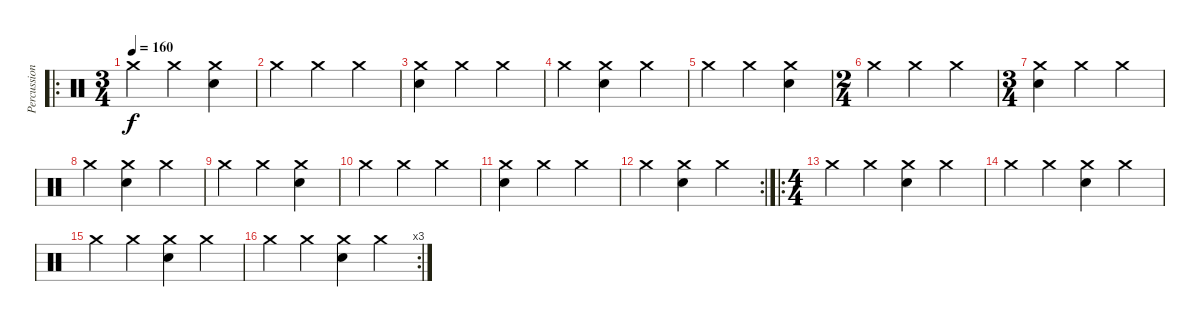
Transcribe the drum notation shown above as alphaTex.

\track ("Percussion" "Percussion") {instrument percussion}
\staff {score}
\articulation defaults
\ro
\ts (3 4)
\tempo 160
\clef neutral
\ks c "Crash medium (hit)".4{dy f} "Crash medium (hit)".4
("Crash medium (hit)" "Snare (hit) 2").4 |
"Crash medium (hit)".4 "Crash medium (hit)".4 "Crash medium (hit)".4 |
("Crash medium (hit)" "Snare (hit) 2").4 "Crash medium (hit)".4 "Crash medium (hit)".4 |
"Crash medium (hit)".4 ("Crash medium (hit)" "Snare (hit) 2").4 "Crash medium (hit)".4 |
"Crash medium (hit)".4 "Crash medium (hit)".4 ("Crash medium (hit)" "Snare (hit) 2").4 |
\ts (2 4)
"Crash medium (hit)".4 "Crash medium (hit)".4 "Crash medium (hit)".4 |
\ts (3 4)
("Crash medium (hit)" "Snare (hit) 2").4 "Crash medium (hit)".4 "Crash medium (hit)".4 |
"Crash medium (hit)".4 ("Crash medium (hit)" "Snare (hit) 2").4 "Crash medium (hit)".4 |
"Crash medium (hit)".4 "Crash medium (hit)".4 ("Crash medium (hit)" "Snare (hit) 2").4 |
"Crash medium (hit)".4 "Crash medium (hit)".4 "Crash medium (hit)".4 |
("Crash medium (hit)" "Snare (hit) 2").4 "Crash medium (hit)".4 "Crash medium (hit)".4 |
\rc 2 "Crash medium (hit)".4
("Crash medium (hit)" "Snare (hit) 2").4 "Crash medium (hit)".4 |
\ro
\ts (4 4)
"Crash medium (hit)".4 "Crash medium (hit)".4 ("Crash medium (hit)" "Snare (hit) 2").4 "Crash medium (hit)".4 |
"Crash medium (hit)".4 "Crash medium (hit)".4 ("Crash medium (hit)" "Snare (hit) 2").4 "Crash medium (hit)".4 |
"Crash medium (hit)".4 "Crash medium (hit)".4 ("Crash medium (hit)" "Snare (hit) 2").4 "Crash medium (hit)".4 |
\rc 3 "Crash medium (hit)".4 "Crash medium (hit)".4
("Crash medium (hit)" "Snare (hit) 2").4 "Crash medium (hit)".4
